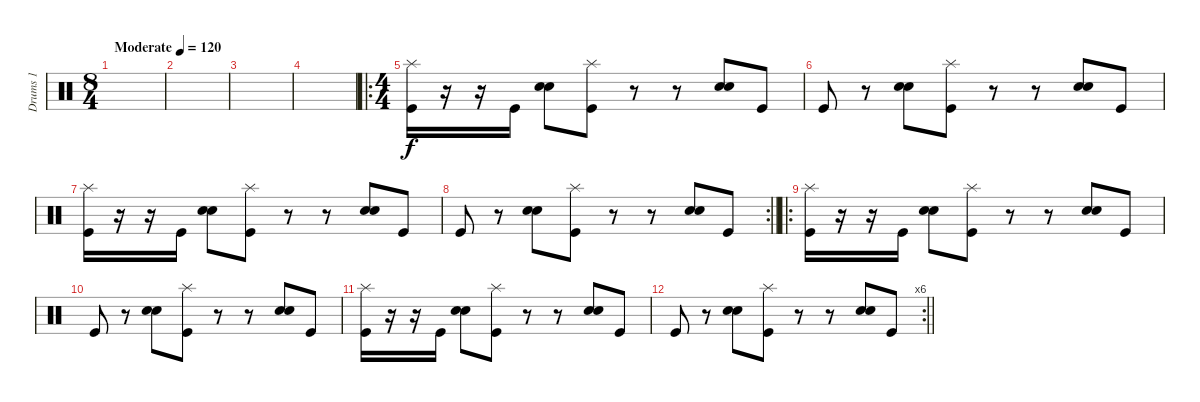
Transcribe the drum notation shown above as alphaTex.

\track ("Drums 1" "Drums 1") {instrument percussion}
\staff {score}
\articulation defaults
\ts (8 4)
\tempo (120 "Moderate")
\clef neutral
\ks c
|
|
|
|
\ro
\ts (4 4)
("Splash (hit)" "Kick (hit)").16 r.16 r.16 "Kick (hit)".16 ("Hand Clap (hit)" "Electric Snare (hit)").8 ("Splash (hit)" "Kick (hit)").8 r.8 r.8 ("Hand Clap (hit)" "Electric Snare (hit)").8 "Kick (hit)".8 |
"Kick (hit)".8 r.8 ("Hand Clap (hit)" "Electric Snare (hit)").8 ("Splash (hit)" "Kick (hit)").8 r.8 r.8 ("Hand Clap (hit)" "Electric Snare (hit)").8 "Kick (hit)".8 |
("Splash (hit)" "Kick (hit)").16 r.16 r.16 "Kick (hit)".16 ("Hand Clap (hit)" "Electric Snare (hit)").8 ("Splash (hit)" "Kick (hit)").8 r.8 r.8 ("Hand Clap (hit)" "Electric Snare (hit)").8 "Kick (hit)".8 |
\rc 2
\barLineRight lightlight "Kick (hit)".8
r.8 ("Hand Clap (hit)" "Electric Snare (hit)").8 ("Splash (hit)" "Kick (hit)").8 r.8 r.8 ("Hand Clap (hit)" "Electric Snare (hit)").8 "Kick (hit)".8 |
\ro
("Splash (hit)" "Kick (hit)").16 r.16 r.16 "Kick (hit)".16 ("Hand Clap (hit)" "Electric Snare (hit)").8 ("Splash (hit)" "Kick (hit)").8 r.8 r.8 ("Hand Clap (hit)" "Electric Snare (hit)").8 "Kick (hit)".8 |
"Kick (hit)".8 r.8 ("Hand Clap (hit)" "Electric Snare (hit)").8 ("Splash (hit)" "Kick (hit)").8 r.8 r.8 ("Hand Clap (hit)" "Electric Snare (hit)").8 "Kick (hit)".8 |
("Splash (hit)" "Kick (hit)").16 r.16 r.16 "Kick (hit)".16 ("Hand Clap (hit)" "Electric Snare (hit)").8 ("Splash (hit)" "Kick (hit)").8 r.8 r.8 ("Hand Clap (hit)" "Electric Snare (hit)").8 "Kick (hit)".8 |
\rc 6
\barLineRight lightlight "Kick (hit)".8
r.8 ("Hand Clap (hit)" "Electric Snare (hit)").8 ("Splash (hit)" "Kick (hit)").8 r.8 r.8 ("Hand Clap (hit)" "Electric Snare (hit)").8 "Kick (hit)".8
